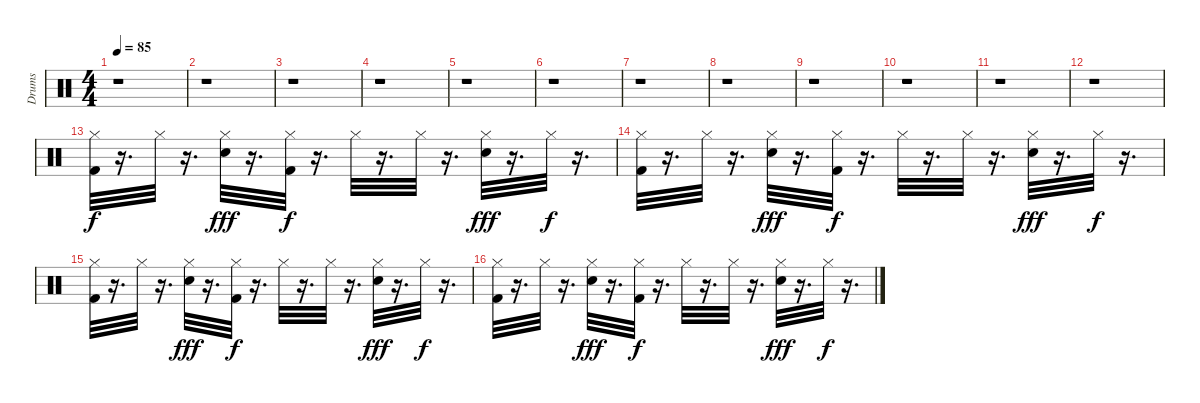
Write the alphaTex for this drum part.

\track ("Drums" "Drums") {instrument percussion}
\staff {score}
\articulation defaults
\ts (4 4)
\tempo 85
\clef neutral
\ks c
r.1{dy f} |
r.1 |
r.1 |
r.1 |
r.1 |
r.1 |
r.1 |
r.1 |
r.1 |
r.1 |
r.1 |
r.1 |
("Hi-Hat (closed)" "Kick (hit) 2").32 r.16{d} "Hi-Hat (closed)".32 r.16{d} ("Hi-Hat (closed)" "Electric Snare (hit)").32{dy fff} r.16{d} ("Hi-Hat (closed)" "Kick (hit) 2").32{dy f} r.16{d} "Hi-Hat (closed)".32 r.16{d} "Hi-Hat (closed)".32 r.16{d} ("Hi-Hat (closed)" "Electric Snare (hit)").32{dy fff} r.16{d} "Hi-Hat (closed)".32{dy f} r.16{d} |
("Hi-Hat (closed)" "Kick (hit) 2").32 r.16{d} "Hi-Hat (closed)".32 r.16{d} ("Hi-Hat (closed)" "Electric Snare (hit)").32{dy fff} r.16{d} ("Hi-Hat (closed)" "Kick (hit) 2").32{dy f} r.16{d} "Hi-Hat (closed)".32 r.16{d} "Hi-Hat (closed)".32 r.16{d} ("Hi-Hat (closed)" "Electric Snare (hit)").32{dy fff} r.16{d} "Hi-Hat (closed)".32{dy f} r.16{d} |
("Hi-Hat (closed)" "Kick (hit) 2").32 r.16{d} "Hi-Hat (closed)".32 r.16{d} ("Hi-Hat (closed)" "Electric Snare (hit)").32{dy fff} r.16{d} ("Hi-Hat (closed)" "Kick (hit) 2").32{dy f} r.16{d} "Hi-Hat (closed)".32 r.16{d} "Hi-Hat (closed)".32 r.16{d} ("Hi-Hat (closed)" "Electric Snare (hit)").32{dy fff} r.16{d} "Hi-Hat (closed)".32{dy f} r.16{d} |
("Hi-Hat (closed)" "Kick (hit) 2").32 r.16{d} "Hi-Hat (closed)".32 r.16{d} ("Hi-Hat (closed)" "Electric Snare (hit)").32{dy fff} r.16{d} ("Hi-Hat (closed)" "Kick (hit) 2").32{dy f} r.16{d} "Hi-Hat (closed)".32 r.16{d} "Hi-Hat (closed)".32 r.16{d} ("Hi-Hat (closed)" "Electric Snare (hit)").32{dy fff} r.16{d} "Hi-Hat (closed)".32{dy f} r.16{d}
